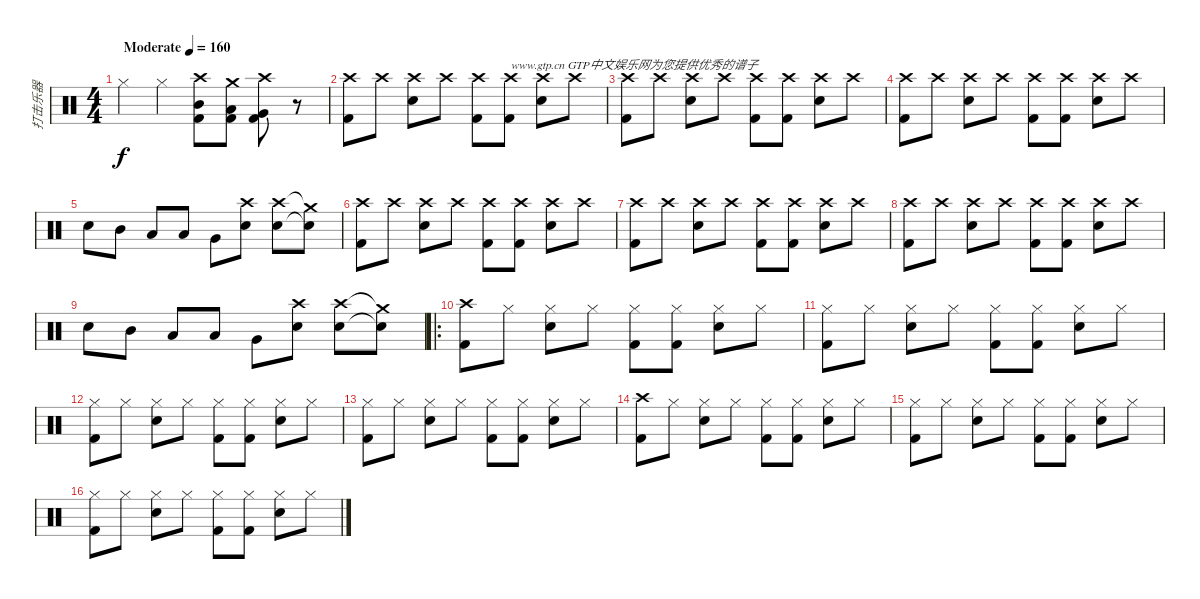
\track ("打击乐器" "打击乐器") {instrument percussion}
\staff {score}
\articulation defaults
\ts (4 4)
\tempo (160 "Moderate")
\clef neutral
\ks c "Hi-Hat (closed)".4{dy f} "Hi-Hat (closed)".4
("Crash high (hit)" "Kick (hit) 2" "Mid Tom (hit)").8 ("Crash medium (hit)" "Kick (hit) 2" "Low Tom (hit)").8 ("Crash high (hit)" "Kick (hit) 2" "Very Low Tom (hit)").8 r.8 |
("Crash high (hit)" "Kick (hit) 2").8 "Crash high (hit)".8 ("Crash high (hit)" "Electric Snare (hit)").8 "Crash high (hit)".8 ("Crash high (hit)" "Kick (hit) 2").8 ("Crash high (hit)" "Kick (hit) 2").8{txt "www.gtp.cn GTP中文娱乐网为您提供优秀的谱子"} ("Crash high (hit)" "Electric Snare (hit)").8 "Crash high (hit)".8 |
("Crash high (hit)" "Kick (hit) 2").8 "Crash high (hit)".8 ("Crash high (hit)" "Electric Snare (hit)").8 "Crash high (hit)".8 ("Crash high (hit)" "Kick (hit) 2").8 ("Crash high (hit)" "Kick (hit) 2").8 ("Crash high (hit)" "Electric Snare (hit)").8 "Crash high (hit)".8 |
("Crash high (hit)" "Kick (hit) 2").8 "Crash high (hit)".8 ("Crash high (hit)" "Electric Snare (hit)").8 "Crash high (hit)".8 ("Crash high (hit)" "Kick (hit) 2").8 ("Crash high (hit)" "Kick (hit) 2").8 ("Crash high (hit)" "Electric Snare (hit)").8 "Crash high (hit)".8 |
"Electric Snare (hit)".8 "Mid Tom (hit)".8 "Low Tom (hit)".8 "Low Tom (hit)".8 "Very Low Tom (hit)".8 ("Crash high (hit)" "Electric Snare (hit)").8 ("Crash high (hit)" "Electric Snare (hit)").8 ("Crash medium (hit)"{t} "Electric Snare (hit)"{t}).8 |
("Crash high (hit)" "Kick (hit) 2").8 "Crash high (hit)".8 ("Crash high (hit)" "Electric Snare (hit)").8 "Crash high (hit)".8 ("Crash high (hit)" "Kick (hit) 2").8 ("Crash high (hit)" "Kick (hit) 2").8 ("Crash high (hit)" "Electric Snare (hit)").8 "Crash high (hit)".8 |
("Crash high (hit)" "Kick (hit) 2").8 "Crash high (hit)".8 ("Crash high (hit)" "Electric Snare (hit)").8 "Crash high (hit)".8 ("Crash high (hit)" "Kick (hit) 2").8 ("Crash high (hit)" "Kick (hit) 2").8 ("Crash high (hit)" "Electric Snare (hit)").8 "Crash high (hit)".8 |
("Crash high (hit)" "Kick (hit) 2").8 "Crash high (hit)".8 ("Crash high (hit)" "Electric Snare (hit)").8 "Crash high (hit)".8 ("Crash high (hit)" "Kick (hit) 2").8 ("Crash high (hit)" "Kick (hit) 2").8 ("Crash high (hit)" "Electric Snare (hit)").8 "Crash high (hit)".8 |
"Electric Snare (hit)".8 "Mid Tom (hit)".8 "Low Tom (hit)".8 "Low Tom (hit)".8 "Very Low Tom (hit)".8 ("Crash high (hit)" "Electric Snare (hit)").8 ("Crash high (hit)" "Electric Snare (hit)").8 ("Crash medium (hit)"{t} "Electric Snare (hit)"{t}).8 |
\ro
("Crash high (hit)" "Kick (hit) 2").8 "Hi-Hat (closed)".8 ("Hi-Hat (closed)" "Electric Snare (hit)").8 "Hi-Hat (closed)".8 ("Hi-Hat (closed)" "Kick (hit) 2").8 ("Hi-Hat (closed)" "Kick (hit) 2").8 ("Hi-Hat (closed)" "Electric Snare (hit)").8 "Hi-Hat (closed)".8 |
("Hi-Hat (closed)" "Kick (hit) 2").8 "Hi-Hat (closed)".8 ("Hi-Hat (closed)" "Electric Snare (hit)").8 "Hi-Hat (closed)".8 ("Hi-Hat (closed)" "Kick (hit) 2").8 ("Hi-Hat (closed)" "Kick (hit) 2").8 ("Hi-Hat (closed)" "Electric Snare (hit)").8 "Hi-Hat (closed)".8 |
("Hi-Hat (closed)" "Kick (hit) 2").8 "Hi-Hat (closed)".8 ("Hi-Hat (closed)" "Electric Snare (hit)").8 "Hi-Hat (closed)".8 ("Hi-Hat (closed)" "Kick (hit) 2").8 ("Hi-Hat (closed)" "Kick (hit) 2").8 ("Hi-Hat (closed)" "Electric Snare (hit)").8 "Hi-Hat (closed)".8 |
("Hi-Hat (closed)" "Kick (hit) 2").8 "Hi-Hat (closed)".8 ("Hi-Hat (closed)" "Electric Snare (hit)").8 "Hi-Hat (closed)".8 ("Hi-Hat (closed)" "Kick (hit) 2").8 ("Hi-Hat (closed)" "Kick (hit) 2").8 ("Hi-Hat (closed)" "Electric Snare (hit)").8 "Hi-Hat (closed)".8 |
("Crash high (hit)" "Kick (hit) 2").8 "Hi-Hat (closed)".8 ("Hi-Hat (closed)" "Electric Snare (hit)").8 "Hi-Hat (closed)".8 ("Hi-Hat (closed)" "Kick (hit) 2").8 ("Hi-Hat (closed)" "Kick (hit) 2").8 ("Hi-Hat (closed)" "Electric Snare (hit)").8 "Hi-Hat (closed)".8 |
("Hi-Hat (closed)" "Kick (hit) 2").8 "Hi-Hat (closed)".8 ("Hi-Hat (closed)" "Electric Snare (hit)").8 "Hi-Hat (closed)".8 ("Hi-Hat (closed)" "Kick (hit) 2").8 ("Hi-Hat (closed)" "Kick (hit) 2").8 ("Hi-Hat (closed)" "Electric Snare (hit)").8 "Hi-Hat (closed)".8 |
("Hi-Hat (closed)" "Kick (hit) 2").8 "Hi-Hat (closed)".8 ("Hi-Hat (closed)" "Electric Snare (hit)").8 "Hi-Hat (closed)".8 ("Hi-Hat (closed)" "Kick (hit) 2").8 ("Hi-Hat (closed)" "Kick (hit) 2").8 ("Hi-Hat (closed)" "Electric Snare (hit)").8 "Hi-Hat (closed)".8
